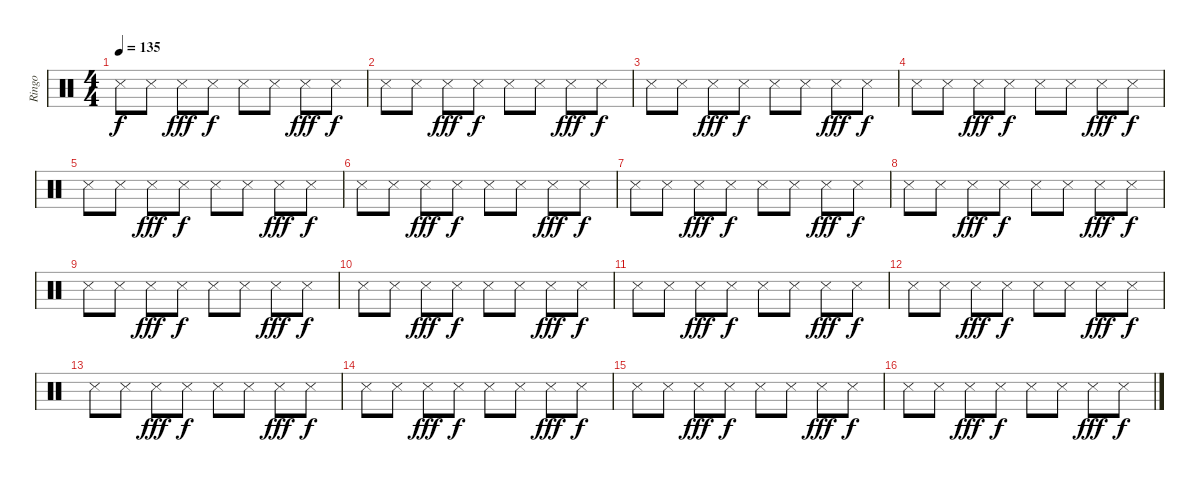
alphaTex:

\track ("Ringo" "Ringo") {instrument percussion}
\staff {score}
\articulation defaults
\ts (4 4)
\tempo 135
\clef neutral
\ks c "Snare (side stick) 3".8{dy f} "Snare (side stick) 3".8 "Snare (side stick) 3".8{dy fff} "Snare (side stick) 3".8{dy f} "Snare (side stick) 3".8 "Snare (side stick) 3".8 "Snare (side stick) 3".8{dy fff} "Snare (side stick) 3".8{dy f}
|
"Snare (side stick) 3".8 "Snare (side stick) 3".8 "Snare (side stick) 3".8{dy fff} "Snare (side stick) 3".8{dy f} "Snare (side stick) 3".8 "Snare (side stick) 3".8 "Snare (side stick) 3".8{dy fff} "Snare (side stick) 3".8{dy f} |
"Snare (side stick) 3".8 "Snare (side stick) 3".8 "Snare (side stick) 3".8{dy fff} "Snare (side stick) 3".8{dy f} "Snare (side stick) 3".8 "Snare (side stick) 3".8 "Snare (side stick) 3".8{dy fff} "Snare (side stick) 3".8{dy f} |
"Snare (side stick) 3".8 "Snare (side stick) 3".8 "Snare (side stick) 3".8{dy fff} "Snare (side stick) 3".8{dy f} "Snare (side stick) 3".8 "Snare (side stick) 3".8 "Snare (side stick) 3".8{dy fff} "Snare (side stick) 3".8{dy f} |
"Snare (side stick) 3".8 "Snare (side stick) 3".8 "Snare (side stick) 3".8{dy fff} "Snare (side stick) 3".8{dy f} "Snare (side stick) 3".8 "Snare (side stick) 3".8 "Snare (side stick) 3".8{dy fff} "Snare (side stick) 3".8{dy f} |
"Snare (side stick) 3".8 "Snare (side stick) 3".8 "Snare (side stick) 3".8{dy fff} "Snare (side stick) 3".8{dy f} "Snare (side stick) 3".8 "Snare (side stick) 3".8 "Snare (side stick) 3".8{dy fff} "Snare (side stick) 3".8{dy f} |
"Snare (side stick) 3".8 "Snare (side stick) 3".8 "Snare (side stick) 3".8{dy fff} "Snare (side stick) 3".8{dy f} "Snare (side stick) 3".8 "Snare (side stick) 3".8 "Snare (side stick) 3".8{dy fff} "Snare (side stick) 3".8{dy f} |
"Snare (side stick) 3".8 "Snare (side stick) 3".8 "Snare (side stick) 3".8{dy fff} "Snare (side stick) 3".8{dy f} "Snare (side stick) 3".8 "Snare (side stick) 3".8 "Snare (side stick) 3".8{dy fff} "Snare (side stick) 3".8{dy f} |
"Snare (side stick) 3".8 "Snare (side stick) 3".8 "Snare (side stick) 3".8{dy fff} "Snare (side stick) 3".8{dy f} "Snare (side stick) 3".8 "Snare (side stick) 3".8 "Snare (side stick) 3".8{dy fff} "Snare (side stick) 3".8{dy f} |
"Snare (side stick) 3".8 "Snare (side stick) 3".8 "Snare (side stick) 3".8{dy fff} "Snare (side stick) 3".8{dy f} "Snare (side stick) 3".8 "Snare (side stick) 3".8 "Snare (side stick) 3".8{dy fff} "Snare (side stick) 3".8{dy f} |
"Snare (side stick) 3".8 "Snare (side stick) 3".8 "Snare (side stick) 3".8{dy fff} "Snare (side stick) 3".8{dy f} "Snare (side stick) 3".8 "Snare (side stick) 3".8 "Snare (side stick) 3".8{dy fff} "Snare (side stick) 3".8{dy f} |
"Snare (side stick) 3".8 "Snare (side stick) 3".8 "Snare (side stick) 3".8{dy fff} "Snare (side stick) 3".8{dy f} "Snare (side stick) 3".8 "Snare (side stick) 3".8 "Snare (side stick) 3".8{dy fff} "Snare (side stick) 3".8{dy f} |
"Snare (side stick) 3".8 "Snare (side stick) 3".8 "Snare (side stick) 3".8{dy fff} "Snare (side stick) 3".8{dy f} "Snare (side stick) 3".8 "Snare (side stick) 3".8 "Snare (side stick) 3".8{dy fff} "Snare (side stick) 3".8{dy f} |
"Snare (side stick) 3".8 "Snare (side stick) 3".8 "Snare (side stick) 3".8{dy fff} "Snare (side stick) 3".8{dy f} "Snare (side stick) 3".8 "Snare (side stick) 3".8 "Snare (side stick) 3".8{dy fff} "Snare (side stick) 3".8{dy f} |
"Snare (side stick) 3".8 "Snare (side stick) 3".8 "Snare (side stick) 3".8{dy fff} "Snare (side stick) 3".8{dy f} "Snare (side stick) 3".8 "Snare (side stick) 3".8 "Snare (side stick) 3".8{dy fff} "Snare (side stick) 3".8{dy f} |
"Snare (side stick) 3".8 "Snare (side stick) 3".8 "Snare (side stick) 3".8{dy fff} "Snare (side stick) 3".8{dy f} "Snare (side stick) 3".8 "Snare (side stick) 3".8 "Snare (side stick) 3".8{dy fff} "Snare (side stick) 3".8{dy f}
